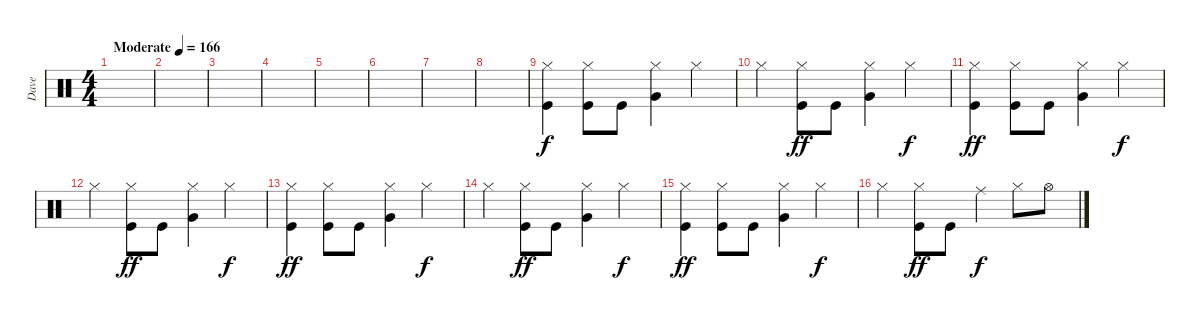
\track ("Dave" "Dave") {instrument percussion}
\staff {score}
\articulation defaults
\ts (4 4)
\tempo (166 "Moderate")
\clef neutral
\ks c
|
|
|
|
|
|
|
|
("Hi-Hat (closed)" "Kick (hit)").4 ("Hi-Hat (closed)" "Kick (hit)").8 "Kick (hit)".8 ("Hi-Hat (closed)" "Very Low Tom (hit)").4 "Hi-Hat (closed)".4{dy f} |
"Hi-Hat (closed)".4 ("Hi-Hat (closed)" "Kick (hit)").8{dy ff} "Kick (hit)".8 ("Hi-Hat (closed)" "Very Low Tom (hit)").4 "Hi-Hat (closed)".4{dy f} |
("Hi-Hat (closed)" "Kick (hit)").4{dy ff} ("Hi-Hat (closed)" "Kick (hit)").8 "Kick (hit)".8 ("Hi-Hat (closed)" "Very Low Tom (hit)").4 "Hi-Hat (closed)".4{dy f} |
"Hi-Hat (closed)".4 ("Hi-Hat (closed)" "Kick (hit)").8{dy ff} "Kick (hit)".8 ("Hi-Hat (closed)" "Very Low Tom (hit)").4 "Hi-Hat (closed)".4{dy f} |
("Hi-Hat (closed)" "Kick (hit)").4{dy ff} ("Hi-Hat (closed)" "Kick (hit)").8 "Kick (hit)".8 ("Hi-Hat (closed)" "Very Low Tom (hit)").4 "Hi-Hat (closed)".4{dy f} |
"Hi-Hat (closed)".4 ("Hi-Hat (closed)" "Kick (hit)").8{dy ff} "Kick (hit)".8 ("Hi-Hat (closed)" "Very Low Tom (hit)").4 "Hi-Hat (closed)".4{dy f} |
("Hi-Hat (closed)" "Kick (hit)").4{dy ff} ("Hi-Hat (closed)" "Kick (hit)").8 "Kick (hit)".8 ("Hi-Hat (closed)" "Very Low Tom (hit)").4 "Hi-Hat (closed)".4{dy f} |
"Hi-Hat (closed)".4 ("Hi-Hat (closed)" "Kick (hit)").8{dy ff} "Kick (hit)".8 "Ride (middle)".4{dy f} "Hi-Hat (closed)".8 "Hi-Hat (open)".8
